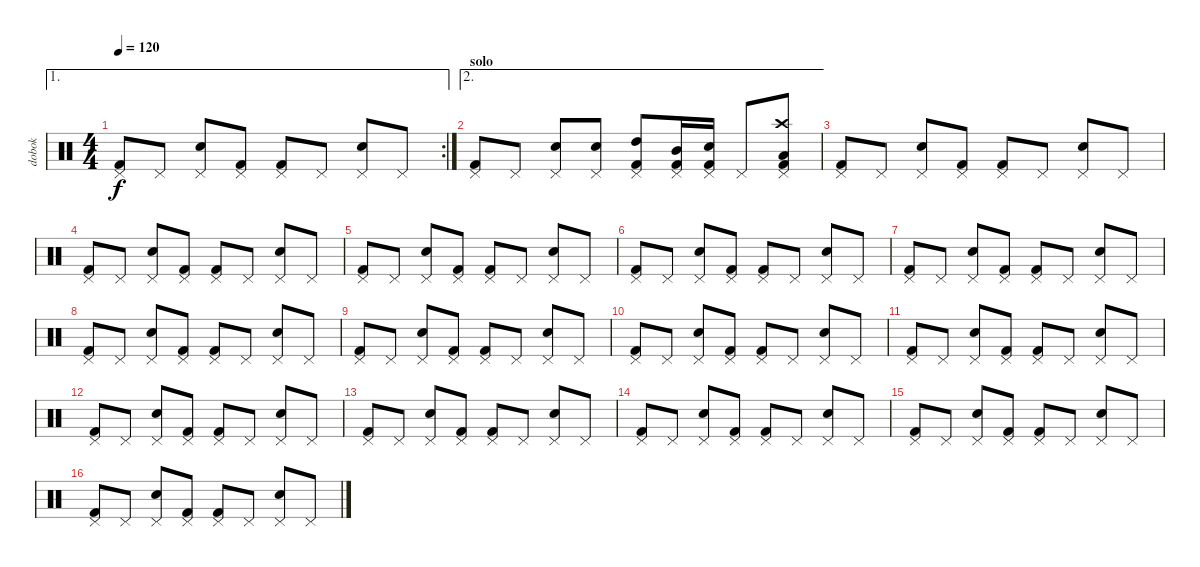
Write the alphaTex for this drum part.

\track ("dobok" "dobok") {instrument percussion}
\staff {score}
\articulation defaults
\ae 1
\rc 2
\ts (4 4)
\tempo 120
\clef neutral
\ks c
("Pedal Hi-Hat (hit)" "Kick (hit) 2").8{dy f} "Pedal Hi-Hat (hit)".8 ("Pedal Hi-Hat (hit)" "Snare (hit) 2").8 ("Pedal Hi-Hat (hit)" "Kick (hit) 2").8 ("Pedal Hi-Hat (hit)" "Kick (hit) 2").8 "Pedal Hi-Hat (hit)".8 ("Pedal Hi-Hat (hit)" "Snare (hit) 2").8 "Pedal Hi-Hat (hit)".8 |
\ae 2
\section ("" "solo")
("Pedal Hi-Hat (hit)" "Kick (hit) 2").8 "Pedal Hi-Hat (hit)".8 ("Pedal Hi-Hat (hit)" "Snare (hit) 2").8 ("Pedal Hi-Hat (hit)" "Snare (hit) 2").8 ("Pedal Hi-Hat (hit)" "High Tom (hit)" "Kick (hit) 2").8 ("Pedal Hi-Hat (hit)" "Mid Tom (hit)" "Kick (hit) 2").16 ("Pedal Hi-Hat (hit)" "Snare (hit) 2" "Kick (hit) 2").16 "Pedal Hi-Hat (hit)".8 ("Crash high (hit)" "Pedal Hi-Hat (hit)" "Low Tom (hit)" "Kick (hit) 2").8 |
("Pedal Hi-Hat (hit)" "Kick (hit) 2").8 "Pedal Hi-Hat (hit)".8 ("Pedal Hi-Hat (hit)" "Snare (hit) 2").8 ("Pedal Hi-Hat (hit)" "Kick (hit) 2").8 ("Pedal Hi-Hat (hit)" "Kick (hit) 2").8 "Pedal Hi-Hat (hit)".8 ("Pedal Hi-Hat (hit)" "Snare (hit) 2").8 "Pedal Hi-Hat (hit)".8 |
("Pedal Hi-Hat (hit)" "Kick (hit) 2").8 "Pedal Hi-Hat (hit)".8 ("Pedal Hi-Hat (hit)" "Snare (hit) 2").8 ("Pedal Hi-Hat (hit)" "Kick (hit) 2").8 ("Pedal Hi-Hat (hit)" "Kick (hit) 2").8 "Pedal Hi-Hat (hit)".8 ("Pedal Hi-Hat (hit)" "Snare (hit) 2").8 "Pedal Hi-Hat (hit)".8 |
("Pedal Hi-Hat (hit)" "Kick (hit) 2").8 "Pedal Hi-Hat (hit)".8 ("Pedal Hi-Hat (hit)" "Snare (hit) 2").8 ("Pedal Hi-Hat (hit)" "Kick (hit) 2").8 ("Pedal Hi-Hat (hit)" "Kick (hit) 2").8 "Pedal Hi-Hat (hit)".8 ("Pedal Hi-Hat (hit)" "Snare (hit) 2").8 "Pedal Hi-Hat (hit)".8 |
("Pedal Hi-Hat (hit)" "Kick (hit) 2").8 "Pedal Hi-Hat (hit)".8 ("Pedal Hi-Hat (hit)" "Snare (hit) 2").8 ("Pedal Hi-Hat (hit)" "Kick (hit) 2").8 ("Pedal Hi-Hat (hit)" "Kick (hit) 2").8 "Pedal Hi-Hat (hit)".8 ("Pedal Hi-Hat (hit)" "Snare (hit) 2").8 "Pedal Hi-Hat (hit)".8 |
("Pedal Hi-Hat (hit)" "Kick (hit) 2").8 "Pedal Hi-Hat (hit)".8 ("Pedal Hi-Hat (hit)" "Snare (hit) 2").8 ("Pedal Hi-Hat (hit)" "Kick (hit) 2").8 ("Pedal Hi-Hat (hit)" "Kick (hit) 2").8 "Pedal Hi-Hat (hit)".8 ("Pedal Hi-Hat (hit)" "Snare (hit) 2").8 "Pedal Hi-Hat (hit)".8 |
("Pedal Hi-Hat (hit)" "Kick (hit) 2").8 "Pedal Hi-Hat (hit)".8 ("Pedal Hi-Hat (hit)" "Snare (hit) 2").8 ("Pedal Hi-Hat (hit)" "Kick (hit) 2").8 ("Pedal Hi-Hat (hit)" "Kick (hit) 2").8 "Pedal Hi-Hat (hit)".8 ("Pedal Hi-Hat (hit)" "Snare (hit) 2").8 "Pedal Hi-Hat (hit)".8 |
("Pedal Hi-Hat (hit)" "Kick (hit) 2").8 "Pedal Hi-Hat (hit)".8 ("Pedal Hi-Hat (hit)" "Snare (hit) 2").8 ("Pedal Hi-Hat (hit)" "Kick (hit) 2").8 ("Pedal Hi-Hat (hit)" "Kick (hit) 2").8 "Pedal Hi-Hat (hit)".8 ("Pedal Hi-Hat (hit)" "Snare (hit) 2").8 "Pedal Hi-Hat (hit)".8 |
("Pedal Hi-Hat (hit)" "Kick (hit) 2").8 "Pedal Hi-Hat (hit)".8 ("Pedal Hi-Hat (hit)" "Snare (hit) 2").8 ("Pedal Hi-Hat (hit)" "Kick (hit) 2").8 ("Pedal Hi-Hat (hit)" "Kick (hit) 2").8 "Pedal Hi-Hat (hit)".8 ("Pedal Hi-Hat (hit)" "Snare (hit) 2").8 "Pedal Hi-Hat (hit)".8 |
("Pedal Hi-Hat (hit)" "Kick (hit) 2").8 "Pedal Hi-Hat (hit)".8 ("Pedal Hi-Hat (hit)" "Snare (hit) 2").8 ("Pedal Hi-Hat (hit)" "Kick (hit) 2").8 ("Pedal Hi-Hat (hit)" "Kick (hit) 2").8 "Pedal Hi-Hat (hit)".8 ("Pedal Hi-Hat (hit)" "Snare (hit) 2").8 "Pedal Hi-Hat (hit)".8 |
("Pedal Hi-Hat (hit)" "Kick (hit) 2").8 "Pedal Hi-Hat (hit)".8 ("Pedal Hi-Hat (hit)" "Snare (hit) 2").8 ("Pedal Hi-Hat (hit)" "Kick (hit) 2").8 ("Pedal Hi-Hat (hit)" "Kick (hit) 2").8 "Pedal Hi-Hat (hit)".8 ("Pedal Hi-Hat (hit)" "Snare (hit) 2").8 "Pedal Hi-Hat (hit)".8 |
("Pedal Hi-Hat (hit)" "Kick (hit) 2").8 "Pedal Hi-Hat (hit)".8 ("Pedal Hi-Hat (hit)" "Snare (hit) 2").8 ("Pedal Hi-Hat (hit)" "Kick (hit) 2").8 ("Pedal Hi-Hat (hit)" "Kick (hit) 2").8 "Pedal Hi-Hat (hit)".8 ("Pedal Hi-Hat (hit)" "Snare (hit) 2").8 "Pedal Hi-Hat (hit)".8 |
("Pedal Hi-Hat (hit)" "Kick (hit) 2").8 "Pedal Hi-Hat (hit)".8 ("Pedal Hi-Hat (hit)" "Snare (hit) 2").8 ("Pedal Hi-Hat (hit)" "Kick (hit) 2").8 ("Pedal Hi-Hat (hit)" "Kick (hit) 2").8 "Pedal Hi-Hat (hit)".8 ("Pedal Hi-Hat (hit)" "Snare (hit) 2").8 "Pedal Hi-Hat (hit)".8 |
("Pedal Hi-Hat (hit)" "Kick (hit) 2").8 "Pedal Hi-Hat (hit)".8 ("Pedal Hi-Hat (hit)" "Snare (hit) 2").8 ("Pedal Hi-Hat (hit)" "Kick (hit) 2").8 ("Pedal Hi-Hat (hit)" "Kick (hit) 2").8 "Pedal Hi-Hat (hit)".8 ("Pedal Hi-Hat (hit)" "Snare (hit) 2").8 "Pedal Hi-Hat (hit)".8 |
("Pedal Hi-Hat (hit)" "Kick (hit) 2").8 "Pedal Hi-Hat (hit)".8 ("Pedal Hi-Hat (hit)" "Snare (hit) 2").8 ("Pedal Hi-Hat (hit)" "Kick (hit) 2").8 ("Pedal Hi-Hat (hit)" "Kick (hit) 2").8 "Pedal Hi-Hat (hit)".8 ("Pedal Hi-Hat (hit)" "Snare (hit) 2").8 "Pedal Hi-Hat (hit)".8
